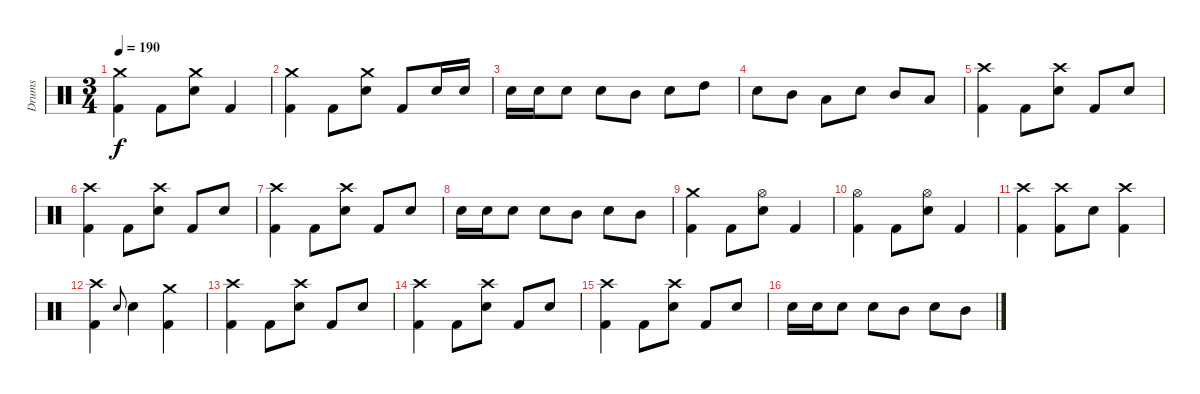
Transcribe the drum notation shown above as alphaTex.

\track ("Drums" "Drums") {instrument percussion}
\staff {score}
\articulation defaults
\ts (3 4)
\tempo 190
\clef neutral
\ks c
("Crash medium (hit)" "Kick (hit) 2").4{dy f} "Kick (hit) 2".8 ("Crash medium (hit)" "Electric Snare (hit)").8 "Kick (hit) 2".4 |
("Crash medium (hit)" "Kick (hit) 2").4 "Kick (hit) 2".8 ("Crash medium (hit)" "Electric Snare (hit)").8 "Kick (hit) 2".8 "Electric Snare (hit)".16 "Electric Snare (hit)".16 |
"Electric Snare (hit)".16 "Electric Snare (hit)".16 "Electric Snare (hit)".8 "Electric Snare (hit)".8 "Mid Tom (hit)".8 "Electric Snare (hit)".8 "High Tom (hit)".8 |
"Electric Snare (hit)".8 "Mid Tom (hit)".8 "Low Tom (hit)".8 "Electric Snare (hit)".8 "Mid Tom (hit)".8 "Low Tom (hit)".8 |
("Crash high (hit)" "Kick (hit) 2").4 "Kick (hit) 2".8 ("Crash high (hit)" "Electric Snare (hit)").8 "Kick (hit) 2".8 "Electric Snare (hit)".8 |
("Crash high (hit)" "Kick (hit) 2").4 "Kick (hit) 2".8 ("Crash high (hit)" "Electric Snare (hit)").8 "Kick (hit) 2".8 "Electric Snare (hit)".8 |
("Crash high (hit)" "Kick (hit) 2").4 "Kick (hit) 2".8 ("Crash high (hit)" "Electric Snare (hit)").8 "Kick (hit) 2".8 "Electric Snare (hit)".8 |
"Electric Snare (hit)".16 "Electric Snare (hit)".16 "Electric Snare (hit)".8 "Electric Snare (hit)".8 "Mid Tom (hit)".8 "Electric Snare (hit)".8 "Mid Tom (hit)".8 |
("Crash medium (hit)" "Kick (hit) 2").4 "Kick (hit) 2".8 ("Hi-Hat (open)" "Electric Snare (hit)").8 "Kick (hit) 2".4 |
("Hi-Hat (open)" "Kick (hit) 2").4 "Kick (hit) 2".8 ("Hi-Hat (open)" "Electric Snare (hit)").8 "Kick (hit) 2".4 |
("Crash high (hit)" "Kick (hit) 2").4 ("Crash high (hit)" "Kick (hit) 2").8 "Electric Snare (hit)".8 ("Crash high (hit)" "Kick (hit) 2").4 |
("Crash high (hit)" "Kick (hit) 2").4 "Electric Snare (hit)".8{gr onbeat} "Electric Snare (hit)".4 ("Crash medium (hit)" "Kick (hit) 2").4 |
("Crash high (hit)" "Kick (hit) 2").4 "Kick (hit) 2".8 ("Crash high (hit)" "Electric Snare (hit)").8 "Kick (hit) 2".8 "Electric Snare (hit)".8 |
("Crash high (hit)" "Kick (hit) 2").4 "Kick (hit) 2".8 ("Crash high (hit)" "Electric Snare (hit)").8 "Kick (hit) 2".8 "Electric Snare (hit)".8 |
("Crash high (hit)" "Kick (hit) 2").4 "Kick (hit) 2".8 ("Crash high (hit)" "Electric Snare (hit)").8 "Kick (hit) 2".8 "Electric Snare (hit)".8 |
"Electric Snare (hit)".16 "Electric Snare (hit)".16 "Electric Snare (hit)".8 "Electric Snare (hit)".8 "Mid Tom (hit)".8 "Electric Snare (hit)".8 "Mid Tom (hit)".8
